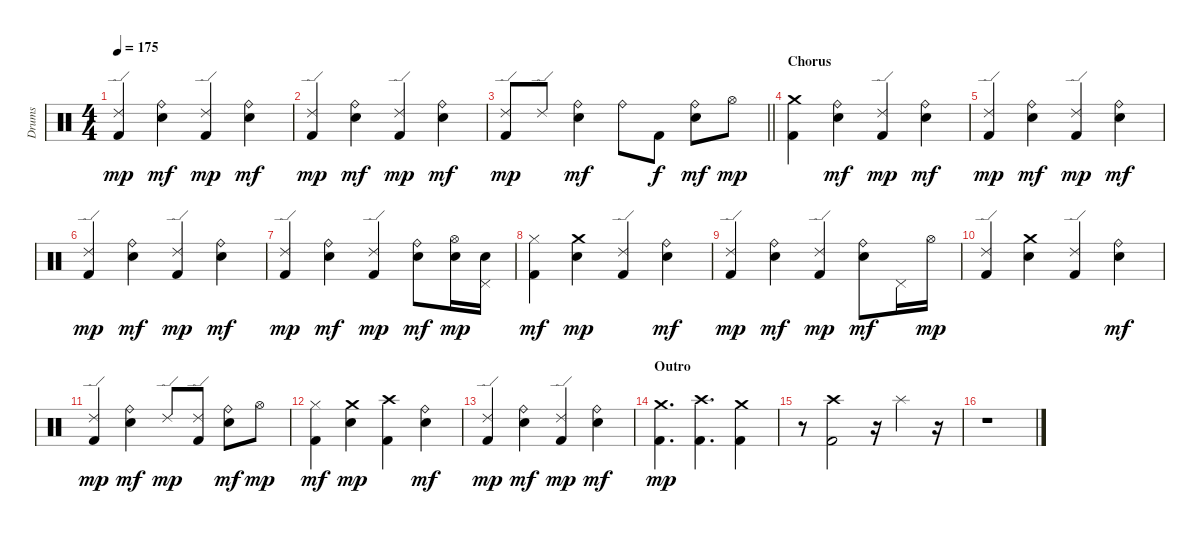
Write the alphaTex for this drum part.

\track ("Drums" "Drums") {instrument percussion}
\staff {score}
\articulation defaults
\ts (4 4)
\tempo 175
\clef neutral
\ks c
("Ride (edge) 2" "Kick (hit) 2").4{dy mp} ("Ride (bell)" "Electric Snare (hit)").4{dy mf} ("Ride (edge) 2" "Kick (hit) 2").4{dy mp} ("Ride (bell)" "Electric Snare (hit)").4{dy mf} |
("Ride (edge) 2" "Kick (hit) 2").4{dy mp} ("Ride (bell)" "Electric Snare (hit)").4{dy mf} ("Ride (edge) 2" "Kick (hit) 2").4{dy mp} ("Ride (bell)" "Electric Snare (hit)").4{dy mf} |
\barLineRight lightlight
("Ride (edge) 2" "Kick (hit) 2").8{dy mp} "Ride (edge) 2".8 ("Ride (bell)" "Electric Snare (hit)").4{dy mf} "Ride (bell)".8 "Kick (hit) 2".8{dy f} ("Ride (bell)" "Electric Snare (hit)").8{dy mf} "Hi-Hat (open)".8{dy mp} |
\section ("" "Chorus")
("Crash medium (hit)" "Kick (hit) 2").4 ("Ride (bell)" "Electric Snare (hit)").4{dy mf} ("Ride (edge) 2" "Kick (hit) 2").4{dy mp} ("Ride (bell)" "Electric Snare (hit)").4{dy mf} |
("Ride (edge) 2" "Kick (hit) 2").4{dy mp} ("Ride (bell)" "Electric Snare (hit)").4{dy mf} ("Ride (edge) 2" "Kick (hit) 2").4{dy mp} ("Ride (bell)" "Electric Snare (hit)").4{dy mf} |
("Ride (edge) 2" "Kick (hit) 2").4{dy mp} ("Ride (bell)" "Electric Snare (hit)").4{dy mf} ("Ride (edge) 2" "Kick (hit) 2").4{dy mp} ("Ride (bell)" "Electric Snare (hit)").4{dy mf} |
("Ride (edge) 2" "Kick (hit) 2").4{dy mp} ("Ride (bell)" "Electric Snare (hit)").4{dy mf} ("Ride (edge) 2" "Kick (hit) 2").4{dy mp} ("Ride (bell)" "Electric Snare (hit)").8{dy mf} ("Hi-Hat (open)" "Electric Snare (hit)").16{dy mp} ("Pedal Hi-Hat (hit)" "Electric Snare (hit)").16 |
("Hi-Hat (closed)" "Kick (hit) 2").4{dy mf} ("Crash medium (hit)" "Electric Snare (hit)").4{dy mp} ("Ride (edge) 2" "Kick (hit) 2").4 ("Ride (bell)" "Electric Snare (hit)").4{dy mf} |
("Ride (edge) 2" "Kick (hit) 2").4{dy mp} ("Ride (bell)" "Electric Snare (hit)").4{dy mf} ("Ride (edge) 2" "Kick (hit) 2").4{dy mp} ("Ride (bell)" "Electric Snare (hit)").8{dy mf} "Pedal Hi-Hat (hit)".16 "Hi-Hat (open)".16{dy mp} |
("Ride (edge) 2" "Kick (hit) 2").4 ("Crash medium (hit)" "Electric Snare (hit)").4 ("Ride (edge) 2" "Kick (hit) 2").4 ("Ride (bell)" "Electric Snare (hit)").4{dy mf} |
("Ride (edge) 2" "Kick (hit) 2").4{dy mp} ("Ride (bell)" "Electric Snare (hit)").4{dy mf} "Ride (edge) 2".8{dy mp} ("Ride (edge) 2" "Kick (hit) 2").8 ("Ride (bell)" "Electric Snare (hit)").8{dy mf} "Hi-Hat (open)".8{dy mp} |
("Hi-Hat (closed)" "Kick (hit) 2").4{dy mf} ("Crash medium (hit)" "Electric Snare (hit)").4{dy mp} ("Crash high (hit)" "Kick (hit) 2").4 ("Ride (bell)" "Electric Snare (hit)").4{dy mf} |
("Ride (edge) 2" "Kick (hit) 2").4{dy mp} ("Ride (bell)" "Electric Snare (hit)").4{dy mf} ("Ride (edge) 2" "Kick (hit) 2").4{dy mp} ("Ride (bell)" "Electric Snare (hit)").4{dy mf} |
\section ("" "Outro")
("Crash medium (hit)" "Kick (hit) 2").4{d dy mp} ("Crash high (hit)" "Kick (hit) 2").4{d} ("Crash medium (hit)" "Kick (hit) 2").4 |
r.8 ("Crash high (hit)" "Kick (hit) 2").2 r.16 "Splash (hit)".4 r.16 |
r.1
